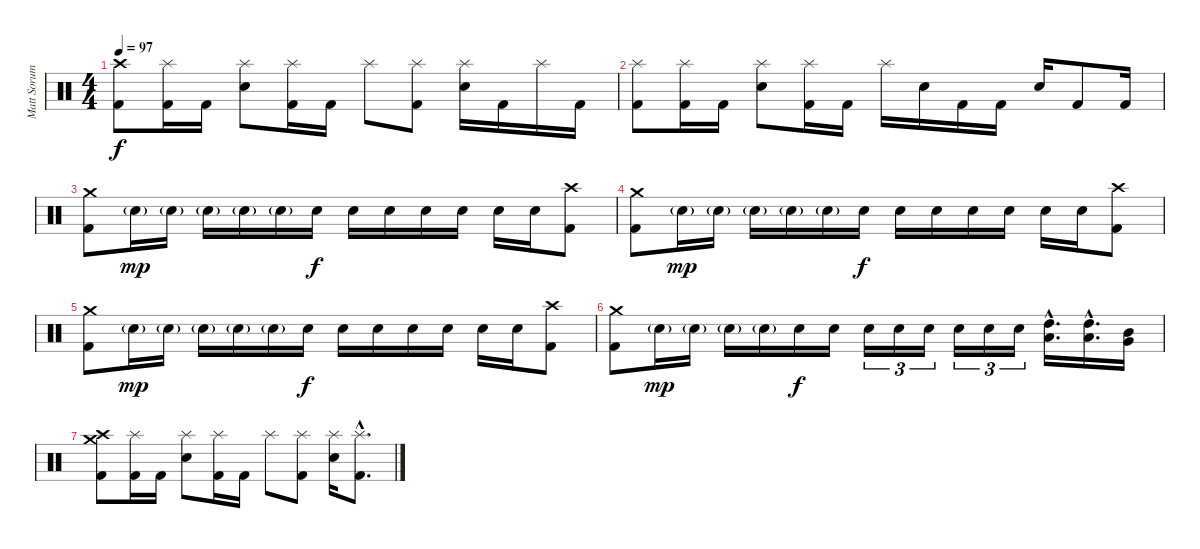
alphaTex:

\track ("Matt Sorum" "Matt Sorum") {instrument percussion}
\staff {score}
\articulation defaults
\ts (4 4)
\tempo 97
\clef neutral
\ks c
("Crash high (hit)" "Kick (hit) 2").8{dy f} ("Splash (hit)" "Kick (hit) 2").16 "Kick (hit) 2".16 ("Splash (hit)" "Electric Snare (hit)").8 ("Splash (hit)" "Kick (hit) 2").16 "Kick (hit) 2".16 "Splash (hit)".8 ("Splash (hit)" "Kick (hit) 2").8 ("Splash (hit)" "Electric Snare (hit)").16 "Kick (hit) 2".16 "Splash (hit)".16 "Kick (hit) 2".16 |
("Splash (hit)" "Kick (hit) 2").8 ("Splash (hit)" "Kick (hit) 2").16 "Kick (hit) 2".16 ("Splash (hit)" "Electric Snare (hit)").8 ("Splash (hit)" "Kick (hit) 2").16 "Kick (hit) 2".16 "Splash (hit)".16 "Electric Snare (hit)".16 "Kick (hit) 2".16 "Kick (hit) 2".16 "Electric Snare (hit)".16 "Kick (hit) 2".8 "Kick (hit) 2".16 |
("Crash medium (hit)" "Kick (hit) 2").8 "Electric Snare (hit)"{g}.16{dy mp} "Electric Snare (hit)"{g}.16 "Electric Snare (hit)"{g}.16 "Electric Snare (hit)"{g}.16 "Electric Snare (hit)"{g}.16 "Electric Snare (hit)".16{dy f} "Electric Snare (hit)".16 "Electric Snare (hit)".16 "Electric Snare (hit)".16 "Electric Snare (hit)".16 "Electric Snare (hit)".16 "Electric Snare (hit)".16 ("Crash high (hit)" "Kick (hit) 2").8 |
("Crash medium (hit)" "Kick (hit) 2").8 "Electric Snare (hit)"{g}.16{dy mp} "Electric Snare (hit)"{g}.16 "Electric Snare (hit)"{g}.16 "Electric Snare (hit)"{g}.16 "Electric Snare (hit)"{g}.16 "Electric Snare (hit)".16{dy f} "Electric Snare (hit)".16 "Electric Snare (hit)".16 "Electric Snare (hit)".16 "Electric Snare (hit)".16 "Electric Snare (hit)".16 "Electric Snare (hit)".16 ("Crash high (hit)" "Kick (hit) 2").8 |
("Crash medium (hit)" "Kick (hit) 2").8 "Electric Snare (hit)"{g}.16{dy mp} "Electric Snare (hit)"{g}.16 "Electric Snare (hit)"{g}.16 "Electric Snare (hit)"{g}.16 "Electric Snare (hit)"{g}.16 "Electric Snare (hit)".16{dy f} "Electric Snare (hit)".16 "Electric Snare (hit)".16 "Electric Snare (hit)".16 "Electric Snare (hit)".16 "Electric Snare (hit)".16 "Electric Snare (hit)".16 ("Crash high (hit)" "Kick (hit) 2").8 |
("Crash medium (hit)" "Kick (hit) 2").8 "Electric Snare (hit)"{g}.16{dy mp} "Electric Snare (hit)"{g}.16 "Electric Snare (hit)"{g}.16 "Electric Snare (hit)"{g}.16 "Electric Snare (hit)".16{dy f} "Electric Snare (hit)".16 "Electric Snare (hit)".16{tu (3 2)} "Electric Snare (hit)".16{tu (3 2)} "Electric Snare (hit)".16{tu (3 2)} "Electric Snare (hit)".16{tu (3 2)} "Electric Snare (hit)".16{tu (3 2)} "Electric Snare (hit)".16{tu (3 2)} ("High Tom (hit)"{hac} "Low Tom (hit)"{hac}).16{d} ("High Tom (hit)"{hac} "Low Tom (hit)"{hac}).16{d} ("Mid Tom (hit)" "Very Low Tom (hit)").16 |
("Crash medium (hit)" "Crash high (hit)" "Kick (hit) 2").8 ("Splash (hit)" "Kick (hit) 2").16 "Kick (hit) 2".16 ("Splash (hit)" "Electric Snare (hit)").8 ("Splash (hit)" "Kick (hit) 2").16 "Kick (hit) 2".16 "Splash (hit)".8 ("Splash (hit)" "Kick (hit) 2").8 ("Splash (hit)" "Electric Snare (hit)").16 ("Splash (hit)"{hac} "Kick (hit) 2"{hac}).8{d}
